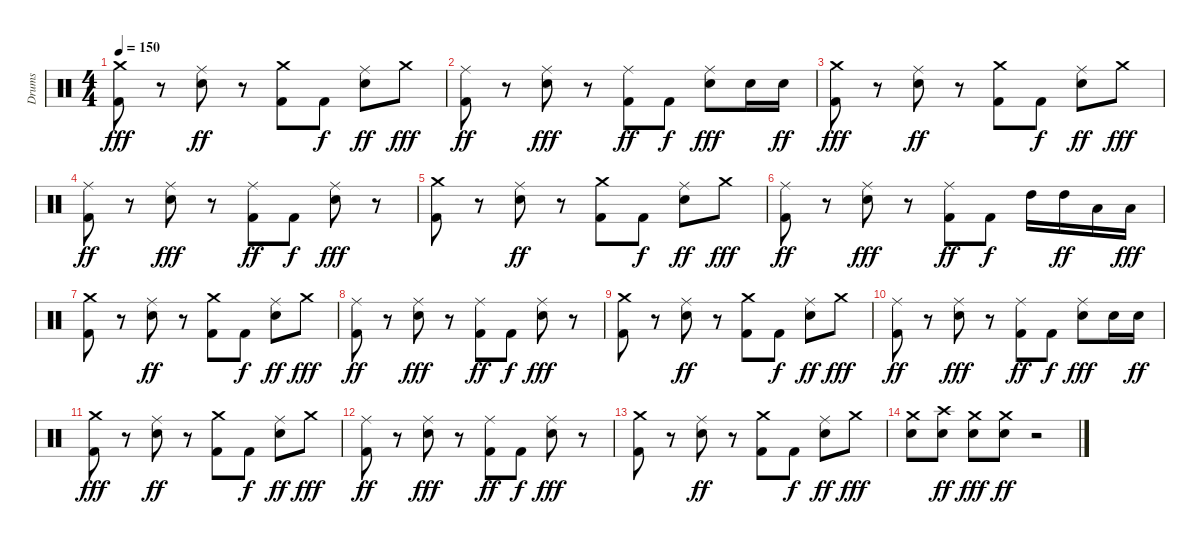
\track ("Drums" "Drums") {instrument percussion}
\staff {score}
\articulation defaults
\ts (4 4)
\tempo 150
\clef neutral
\ks c
("Kick (hit) 2" "Crash medium (hit)").8{dy fff} r.8 ("Ride (middle)" "Snare (hit) 2").8{dy ff} r.8 ("Crash medium (hit)" "Kick (hit) 2").8 "Kick (hit) 2".8{dy f} ("Ride (middle)" "Snare (hit) 2").8{dy ff} "Crash medium (hit)".8{dy fff} |
("Kick (hit) 2" "Ride (middle)").8{dy ff} r.8 ("Snare (hit) 2" "Ride (middle)").8{dy fff} r.8 ("Kick (hit) 2" "Ride (middle)").8{dy ff} "Kick (hit) 2".8{dy f} ("Snare (hit) 2" "Ride (middle)").8{dy fff} "Snare (hit) 2".16 "Snare (hit) 2".16{dy ff} |
("Kick (hit) 2" "Crash medium (hit)").8{dy fff} r.8 ("Ride (middle)" "Snare (hit) 2").8{dy ff} r.8 ("Crash medium (hit)" "Kick (hit) 2").8 "Kick (hit) 2".8{dy f} ("Ride (middle)" "Snare (hit) 2").8{dy ff} "Crash medium (hit)".8{dy fff} |
("Ride (middle)" "Kick (hit) 2").8{dy ff} r.8 ("Snare (hit) 2" "Ride (middle)").8{dy fff} r.8 ("Kick (hit) 2" "Ride (middle)").8{dy ff} "Kick (hit) 2".8{dy f} ("Snare (hit) 2" "Ride (middle)").8{dy fff} r.8 |
("Kick (hit) 2" "Crash medium (hit)").8 r.8 ("Ride (middle)" "Snare (hit) 2").8{dy ff} r.8 ("Crash medium (hit)" "Kick (hit) 2").8 "Kick (hit) 2".8{dy f} ("Ride (middle)" "Snare (hit) 2").8{dy ff} "Crash medium (hit)".8{dy fff} |
("Kick (hit) 2" "Ride (middle)").8{dy ff} r.8 ("Snare (hit) 2" "Ride (middle)").8{dy fff} r.8 ("Kick (hit) 2" "Ride (middle)").8{dy ff} "Kick (hit) 2".8{dy f} "High Tom (hit)".16 "High Tom (hit)".16{dy ff} "Low Tom (hit)".16 "Low Tom (hit)".16{dy fff} |
("Kick (hit) 2" "Crash medium (hit)").8 r.8 ("Ride (middle)" "Snare (hit) 2").8{dy ff} r.8 ("Crash medium (hit)" "Kick (hit) 2").8 "Kick (hit) 2".8{dy f} ("Ride (middle)" "Snare (hit) 2").8{dy ff} "Crash medium (hit)".8{dy fff} |
("Ride (middle)" "Kick (hit) 2").8{dy ff} r.8 ("Snare (hit) 2" "Ride (middle)").8{dy fff} r.8 ("Kick (hit) 2" "Ride (middle)").8{dy ff} "Kick (hit) 2".8{dy f} ("Snare (hit) 2" "Ride (middle)").8{dy fff} r.8 |
("Kick (hit) 2" "Crash medium (hit)").8 r.8 ("Ride (middle)" "Snare (hit) 2").8{dy ff} r.8 ("Crash medium (hit)" "Kick (hit) 2").8 "Kick (hit) 2".8{dy f} ("Ride (middle)" "Snare (hit) 2").8{dy ff} "Crash medium (hit)".8{dy fff} |
("Kick (hit) 2" "Ride (middle)").8{dy ff} r.8 ("Snare (hit) 2" "Ride (middle)").8{dy fff} r.8 ("Kick (hit) 2" "Ride (middle)").8{dy ff} "Kick (hit) 2".8{dy f} ("Snare (hit) 2" "Ride (middle)").8{dy fff} "Snare (hit) 2".16 "Snare (hit) 2".16{dy ff} |
("Kick (hit) 2" "Crash medium (hit)").8{dy fff} r.8 ("Ride (middle)" "Snare (hit) 2").8{dy ff} r.8 ("Crash medium (hit)" "Kick (hit) 2").8 "Kick (hit) 2".8{dy f} ("Ride (middle)" "Snare (hit) 2").8{dy ff} "Crash medium (hit)".8{dy fff} |
("Ride (middle)" "Kick (hit) 2").8{dy ff} r.8 ("Snare (hit) 2" "Ride (middle)").8{dy fff} r.8 ("Kick (hit) 2" "Ride (middle)").8{dy ff} "Kick (hit) 2".8{dy f} ("Snare (hit) 2" "Ride (middle)").8{dy fff} r.8 |
("Kick (hit) 2" "Crash medium (hit)").8 r.8 ("Ride (middle)" "Snare (hit) 2").8{dy ff} r.8 ("Crash medium (hit)" "Kick (hit) 2").8 "Kick (hit) 2".8{dy f} ("Ride (middle)" "Snare (hit) 2").8{dy ff} "Crash medium (hit)".8{dy fff} |
("Snare (hit) 2" "Crash medium (hit)").8 ("Snare (hit) 2" "Crash high (hit)").8{dy ff} ("Snare (hit) 2" "Crash medium (hit)").8{dy fff} ("Snare (hit) 2" "Crash medium (hit)").8{dy ff} r.2
